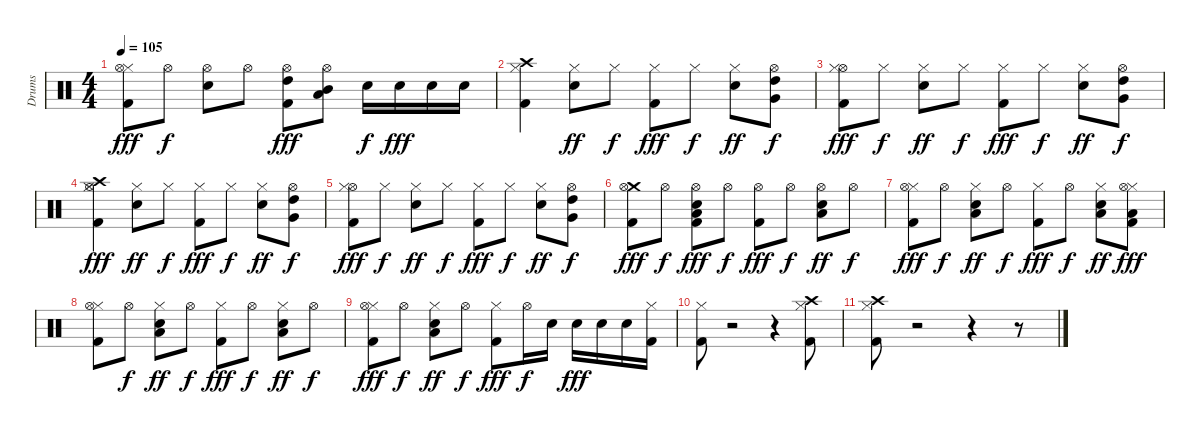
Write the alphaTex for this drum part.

\track ("Drums" "Drums") {instrument percussion}
\staff {score}
\articulation defaults
\ts (4 4)
\tempo 105
\clef neutral
\ks c
("Hi-Hat (closed)" "Hi-Hat (open)" "Kick (hit) 2").8{dy fff} "Hi-Hat (open)".8{dy f} ("Hi-Hat (open)" "Snare (hit) 2").8 "Hi-Hat (open)".8 ("Hi-Hat (open)" "High Tom (hit)" "Kick (hit) 2").8{dy fff} ("Low Tom (hit)" "Hi-Hat (open)" "Mid Tom (hit)").8 "Snare (hit) 2".16{dy f} "Snare (hit) 2".16{dy fff} "Snare (hit) 2".16 "Snare (hit) 2".16 |
("Crash high (hit)" "Hi-Hat (closed)" "Kick (hit) 2").4 ("Hi-Hat (closed)" "Electric Snare (hit)").8{dy ff} "Hi-Hat (closed)".8{dy f} ("Hi-Hat (closed)" "Kick (hit) 2").8{dy fff} "Hi-Hat (closed)".8{dy f} ("Hi-Hat (closed)" "Electric Snare (hit)").8{dy ff} ("Very Low Tom (hit)" "Hi-Hat (open)" "High Tom (hit)").8{dy f} |
("Hi-Hat (open)" "Hi-Hat (closed)" "Kick (hit) 2").8{dy fff} "Hi-Hat (closed)".8{dy f} ("Hi-Hat (closed)" "Electric Snare (hit)").8{dy ff} "Hi-Hat (closed)".8{dy f} ("Hi-Hat (closed)" "Kick (hit) 2").8{dy fff} "Hi-Hat (closed)".8{dy f} ("Hi-Hat (closed)" "Electric Snare (hit)").8{dy ff} ("Very Low Tom (hit)" "Hi-Hat (open)" "High Tom (hit)").8{dy f} |
("Crash high (hit)" "Hi-Hat (closed)" "Hi-Hat (open)" "Kick (hit) 2").4{dy fff} ("Hi-Hat (closed)" "Electric Snare (hit)").8{dy ff} "Hi-Hat (closed)".8{dy f} ("Hi-Hat (closed)" "Kick (hit) 2").8{dy fff} "Hi-Hat (closed)".8{dy f} ("Hi-Hat (closed)" "Electric Snare (hit)").8{dy ff} ("Very Low Tom (hit)" "Hi-Hat (open)" "High Tom (hit)").8{dy f} |
("Hi-Hat (open)" "Hi-Hat (closed)" "Kick (hit) 2").8{dy fff} "Hi-Hat (closed)".8{dy f} ("Hi-Hat (closed)" "Electric Snare (hit)").8{dy ff} "Hi-Hat (closed)".8{dy f} ("Hi-Hat (closed)" "Kick (hit) 2").8{dy fff} "Hi-Hat (closed)".8{dy f} ("Hi-Hat (closed)" "Electric Snare (hit)").8{dy ff} ("Very Low Tom (hit)" "Hi-Hat (open)" "High Tom (hit)").8{dy f} |
("Crash medium (hit)" "Hi-Hat (open)" "Kick (hit) 2").8{dy fff} "Hi-Hat (open)".8{dy f} ("Hi-Hat (open)" "Low Floor Tom (hit)" "Snare (hit) 2" "Kick (hit) 2").8{dy fff} "Hi-Hat (open)".8{dy f} ("Hi-Hat (open)" "Kick (hit) 2").8{dy fff} "Hi-Hat (open)".8{dy f} ("Hi-Hat (open)" "Low Floor Tom (hit)" "Snare (hit) 2").8{dy ff} "Hi-Hat (open)".8{dy f} |
("Hi-Hat (closed)" "Hi-Hat (open)" "Kick (hit) 2").8{dy fff} "Hi-Hat (open)".8{dy f} ("Hi-Hat (closed)" "Low Floor Tom (hit)" "Snare (hit) 2").8{dy ff} "Hi-Hat (open)".8{dy f} ("Hi-Hat (closed)" "Kick (hit) 2").8{dy fff} "Hi-Hat (open)".8{dy f} ("Hi-Hat (closed)" "Low Floor Tom (hit)" "Snare (hit) 2").8{dy ff} ("Hi-Hat (closed)" "Kick (hit) 2" "Low Tom (hit)" "Hi-Hat (open)").8{dy fff} |
("Hi-Hat (closed)" "Hi-Hat (open)" "Kick (hit) 2").8 "Hi-Hat (open)".8{dy f} ("Hi-Hat (closed)" "Low Floor Tom (hit)" "Snare (hit) 2").8{dy ff} "Hi-Hat (open)".8{dy f} ("Hi-Hat (closed)" "Kick (hit) 2").8{dy fff} "Hi-Hat (open)".8{dy f} ("Hi-Hat (closed)" "Low Floor Tom (hit)" "Snare (hit) 2").8{dy ff} "Hi-Hat (open)".8{dy f} |
("Hi-Hat (closed)" "Hi-Hat (open)" "Kick (hit) 2").8{dy fff} "Hi-Hat (open)".8{dy f} ("Hi-Hat (closed)" "Low Floor Tom (hit)" "Snare (hit) 2").8{dy ff} "Hi-Hat (open)".8{dy f} ("Hi-Hat (closed)" "Kick (hit) 2").8{dy fff} "Hi-Hat (open)".16{dy f} "Snare (hit) 2".16 "Snare (hit) 2".16{dy fff} "Snare (hit) 2".16 "Snare (hit) 2".16 ("Kick (hit) 2" "Hi-Hat (closed)").16 |
("Hi-Hat (closed)" "Kick (hit) 2").8 r.2 r.4 ("Crash high (hit)" "Hi-Hat (closed)" "Kick (hit) 2").8 |
("Crash high (hit)" "Hi-Hat (closed)" "Kick (hit) 2").8 r.2 r.4 r.8
